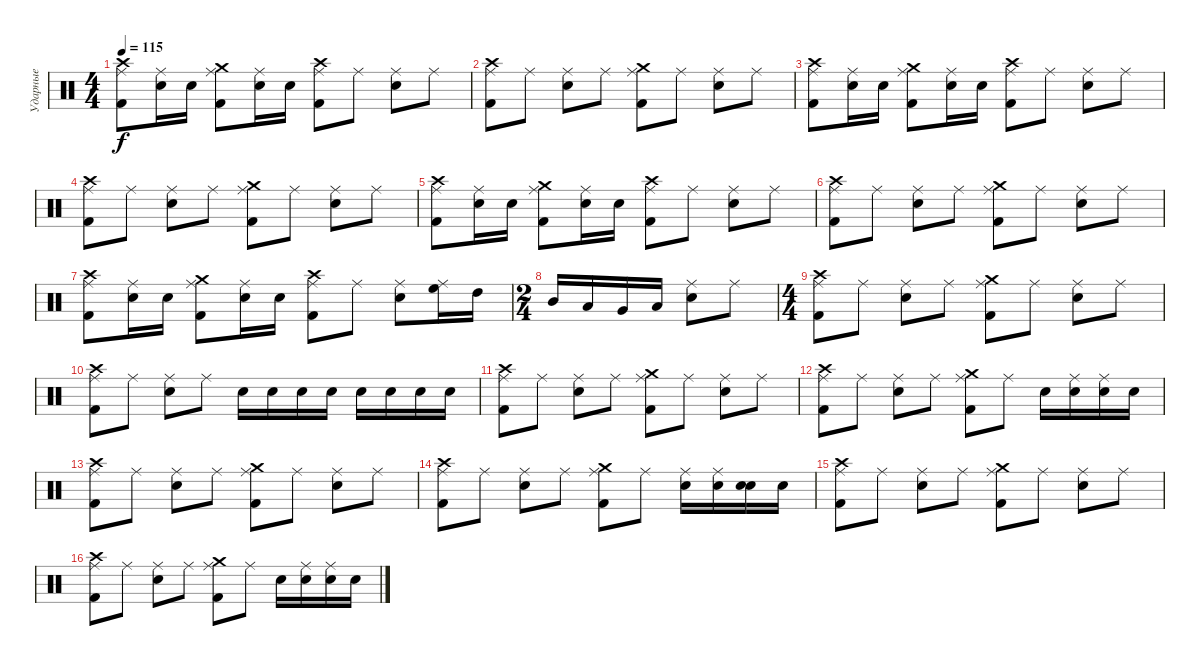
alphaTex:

\track ("Ударные" "Ударные") {instrument percussion}
\staff {score}
\articulation defaults
\ts (4 4)
\tempo 115
\clef neutral
\ks c
("Kick (hit) 2" "Crash high (hit)" "Ride (middle)").8{dy f} ("Electric Snare (hit)" "Ride (middle)").16 "Electric Snare (hit)".16 ("Kick (hit) 2" "Crash medium (hit)" "Ride (middle)").8 ("Electric Snare (hit)" "Ride (middle)").16 "Electric Snare (hit)".16 ("Kick (hit) 2" "Crash high (hit)" "Ride (middle)").8 "Ride (middle)".8 ("Electric Snare (hit)" "Ride (middle)").8 "Ride (middle)".8 |
("Kick (hit) 2" "Crash high (hit)" "Ride (middle)").8 "Ride (middle)".8 ("Electric Snare (hit)" "Ride (middle)").8 "Ride (middle)".8 ("Kick (hit) 2" "Crash medium (hit)" "Ride (middle)").8 "Ride (middle)".8 ("Electric Snare (hit)" "Ride (middle)").8 "Ride (middle)".8 |
("Kick (hit) 2" "Crash high (hit)" "Ride (middle)").8 ("Electric Snare (hit)" "Ride (middle)").16 "Electric Snare (hit)".16 ("Kick (hit) 2" "Crash medium (hit)" "Ride (middle)").8 ("Electric Snare (hit)" "Ride (middle)").16 "Electric Snare (hit)".16 ("Kick (hit) 2" "Crash high (hit)" "Ride (middle)").8 "Ride (middle)".8 ("Electric Snare (hit)" "Ride (middle)").8 "Ride (middle)".8 |
("Kick (hit) 2" "Crash high (hit)" "Ride (middle)").8 "Ride (middle)".8 ("Electric Snare (hit)" "Ride (middle)").8 "Ride (middle)".8 ("Kick (hit) 2" "Crash medium (hit)" "Ride (middle)").8 "Ride (middle)".8 ("Electric Snare (hit)" "Ride (middle)").8 "Ride (middle)".8 |
("Kick (hit) 2" "Crash high (hit)" "Ride (middle)").8 ("Electric Snare (hit)" "Ride (middle)").16 "Electric Snare (hit)".16 ("Kick (hit) 2" "Crash medium (hit)" "Ride (middle)").8 ("Electric Snare (hit)" "Ride (middle)").16 "Electric Snare (hit)".16 ("Kick (hit) 2" "Crash high (hit)" "Ride (middle)").8 "Ride (middle)".8 ("Electric Snare (hit)" "Ride (middle)").8 "Ride (middle)".8 |
("Kick (hit) 2" "Crash high (hit)" "Ride (middle)").8 "Ride (middle)".8 ("Electric Snare (hit)" "Ride (middle)").8 "Ride (middle)".8 ("Kick (hit) 2" "Crash medium (hit)" "Ride (middle)").8 "Ride (middle)".8 ("Electric Snare (hit)" "Ride (middle)").8 "Ride (middle)".8 |
("Kick (hit) 2" "Crash high (hit)" "Ride (middle)").8 ("Electric Snare (hit)" "Ride (middle)").16 "Electric Snare (hit)".16 ("Kick (hit) 2" "Crash medium (hit)" "Ride (middle)").8 ("Electric Snare (hit)" "Ride (middle)").16 "Electric Snare (hit)".16 ("Kick (hit) 2" "Crash high (hit)" "Ride (middle)").8 "Ride (middle)".8 ("Electric Snare (hit)" "Ride (middle)").8 ("High Floor Tom (hit)" "Ride (middle)").16 "High Tom (hit)".16 |
\ts (2 4)
"Mid Tom (hit)".16 "Low Tom (hit)".16 "Very Low Tom (hit)".16 "Low Floor Tom (hit)".16 ("Electric Snare (hit)" "Ride (middle)").8 "Ride (middle)".8 |
\ts (4 4)
("Kick (hit) 2" "Crash high (hit)" "Ride (middle)").8 "Ride (middle)".8 ("Electric Snare (hit)" "Ride (middle)").8 "Ride (middle)".8 ("Kick (hit) 2" "Crash medium (hit)" "Ride (middle)").8 "Ride (middle)".8 ("Electric Snare (hit)" "Ride (middle)").8 "Ride (middle)".8 |
("Kick (hit) 2" "Crash high (hit)" "Ride (middle)").8 "Ride (middle)".8 ("Electric Snare (hit)" "Ride (middle)").8 "Ride (middle)".8 "Electric Snare (hit)".16 "Electric Snare (hit)".16 "Electric Snare (hit)".16 "Electric Snare (hit)".16 "Electric Snare (hit)".16 "Electric Snare (hit)".16 "Electric Snare (hit)".16 "Electric Snare (hit)".16 |
("Kick (hit) 2" "Crash high (hit)" "Ride (middle)").8 "Ride (middle)".8 ("Electric Snare (hit)" "Ride (middle)").8 "Ride (middle)".8 ("Kick (hit) 2" "Crash medium (hit)" "Ride (middle)").8 "Ride (middle)".8 ("Electric Snare (hit)" "Ride (middle)").8 "Ride (middle)".8 |
("Kick (hit) 2" "Crash high (hit)" "Ride (middle)").8 "Ride (middle)".8 ("Electric Snare (hit)" "Ride (middle)").8 "Ride (middle)".8 ("Kick (hit) 2" "Crash medium (hit)" "Ride (middle)").8 "Ride (middle)".8 "Electric Snare (hit)".16 ("Electric Snare (hit)" "Ride (middle)").16 ("Electric Snare (hit)" "Ride (middle)").16 "Electric Snare (hit)".16 |
("Kick (hit) 2" "Crash high (hit)" "Ride (middle)").8 "Ride (middle)".8 ("Electric Snare (hit)" "Ride (middle)").8 "Ride (middle)".8 ("Kick (hit) 2" "Crash medium (hit)" "Ride (middle)").8 "Ride (middle)".8 ("Electric Snare (hit)" "Ride (middle)").8 "Ride (middle)".8 |
("Kick (hit) 2" "Crash high (hit)" "Ride (middle)").8 "Ride (middle)".8 ("Electric Snare (hit)" "Ride (middle)").8 "Ride (middle)".8 ("Kick (hit) 2" "Crash medium (hit)" "Ride (middle)").8 "Ride (middle)".8 ("Electric Snare (hit)" "Ride (middle)").16 ("Electric Snare (hit)" "Ride (middle)").16 ("Snare (hit)" "Electric Snare (hit)").16 "Electric Snare (hit)".16 |
("Kick (hit) 2" "Crash high (hit)" "Ride (middle)").8 "Ride (middle)".8 ("Electric Snare (hit)" "Ride (middle)").8 "Ride (middle)".8 ("Kick (hit) 2" "Crash medium (hit)" "Ride (middle)").8 "Ride (middle)".8 ("Electric Snare (hit)" "Ride (middle)").8 "Ride (middle)".8 |
("Kick (hit) 2" "Crash high (hit)" "Ride (middle)").8 "Ride (middle)".8 ("Electric Snare (hit)" "Ride (middle)").8 "Ride (middle)".8 ("Kick (hit) 2" "Crash medium (hit)" "Ride (middle)").8 "Ride (middle)".8 "Electric Snare (hit)".16 ("Electric Snare (hit)" "Ride (middle)").16 ("Electric Snare (hit)" "Ride (middle)").16 "Electric Snare (hit)".16
